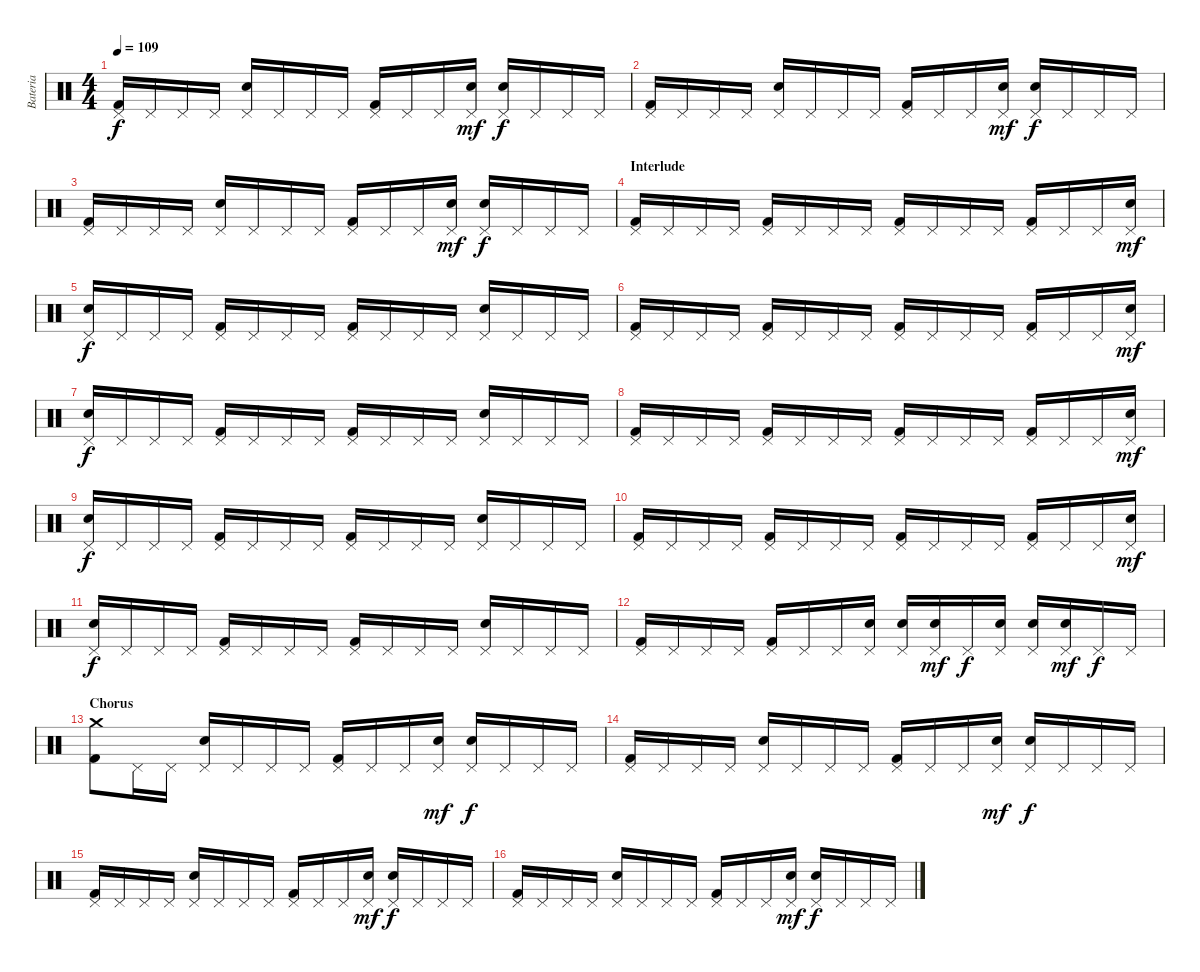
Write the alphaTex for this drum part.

\track ("Bateria" "Bateria") {instrument percussion}
\staff {score}
\articulation defaults
\ts (4 4)
\tempo 109
\clef neutral
\ks c
("Pedal Hi-Hat (hit)" "Kick (hit) 2").16{dy f} "Pedal Hi-Hat (hit)".16 "Pedal Hi-Hat (hit)".16 "Pedal Hi-Hat (hit)".16 ("Pedal Hi-Hat (hit)" "Electric Snare (hit)").16 "Pedal Hi-Hat (hit)".16 "Pedal Hi-Hat (hit)".16 "Pedal Hi-Hat (hit)".16 ("Pedal Hi-Hat (hit)" "Kick (hit) 2").16 "Pedal Hi-Hat (hit)".16 "Pedal Hi-Hat (hit)".16 ("Pedal Hi-Hat (hit)" "Electric Snare (hit)").16{dy mf} ("Pedal Hi-Hat (hit)" "Electric Snare (hit)").16{dy f} "Pedal Hi-Hat (hit)".16 "Pedal Hi-Hat (hit)".16 "Pedal Hi-Hat (hit)".16 |
("Pedal Hi-Hat (hit)" "Kick (hit) 2").16 "Pedal Hi-Hat (hit)".16 "Pedal Hi-Hat (hit)".16 "Pedal Hi-Hat (hit)".16 ("Pedal Hi-Hat (hit)" "Electric Snare (hit)").16 "Pedal Hi-Hat (hit)".16 "Pedal Hi-Hat (hit)".16 "Pedal Hi-Hat (hit)".16 ("Pedal Hi-Hat (hit)" "Kick (hit) 2").16 "Pedal Hi-Hat (hit)".16 "Pedal Hi-Hat (hit)".16 ("Pedal Hi-Hat (hit)" "Electric Snare (hit)").16{dy mf} ("Pedal Hi-Hat (hit)" "Electric Snare (hit)").16{dy f} "Pedal Hi-Hat (hit)".16 "Pedal Hi-Hat (hit)".16 "Pedal Hi-Hat (hit)".16 |
("Pedal Hi-Hat (hit)" "Kick (hit) 2").16 "Pedal Hi-Hat (hit)".16 "Pedal Hi-Hat (hit)".16 "Pedal Hi-Hat (hit)".16 ("Pedal Hi-Hat (hit)" "Electric Snare (hit)").16 "Pedal Hi-Hat (hit)".16 "Pedal Hi-Hat (hit)".16 "Pedal Hi-Hat (hit)".16 ("Pedal Hi-Hat (hit)" "Kick (hit) 2").16 "Pedal Hi-Hat (hit)".16 "Pedal Hi-Hat (hit)".16 ("Pedal Hi-Hat (hit)" "Electric Snare (hit)").16{dy mf} ("Pedal Hi-Hat (hit)" "Electric Snare (hit)").16{dy f} "Pedal Hi-Hat (hit)".16 "Pedal Hi-Hat (hit)".16 "Pedal Hi-Hat (hit)".16 |
\section ("" "Interlude")
("Pedal Hi-Hat (hit)" "Kick (hit) 2").16 "Pedal Hi-Hat (hit)".16 "Pedal Hi-Hat (hit)".16 "Pedal Hi-Hat (hit)".16 ("Pedal Hi-Hat (hit)" "Kick (hit) 2").16 "Pedal Hi-Hat (hit)".16 "Pedal Hi-Hat (hit)".16 "Pedal Hi-Hat (hit)".16 ("Pedal Hi-Hat (hit)" "Kick (hit) 2").16 "Pedal Hi-Hat (hit)".16 "Pedal Hi-Hat (hit)".16 "Pedal Hi-Hat (hit)".16 ("Pedal Hi-Hat (hit)" "Kick (hit) 2").16 "Pedal Hi-Hat (hit)".16 "Pedal Hi-Hat (hit)".16 ("Pedal Hi-Hat (hit)" "Electric Snare (hit)").16{dy mf} |
("Pedal Hi-Hat (hit)" "Electric Snare (hit)").16{dy f} "Pedal Hi-Hat (hit)".16 "Pedal Hi-Hat (hit)".16 "Pedal Hi-Hat (hit)".16 ("Pedal Hi-Hat (hit)" "Kick (hit) 2").16 "Pedal Hi-Hat (hit)".16 "Pedal Hi-Hat (hit)".16 "Pedal Hi-Hat (hit)".16 ("Pedal Hi-Hat (hit)" "Kick (hit) 2").16 "Pedal Hi-Hat (hit)".16 "Pedal Hi-Hat (hit)".16 "Pedal Hi-Hat (hit)".16 ("Pedal Hi-Hat (hit)" "Electric Snare (hit)").16 "Pedal Hi-Hat (hit)".16 "Pedal Hi-Hat (hit)".16 "Pedal Hi-Hat (hit)".16 |
("Pedal Hi-Hat (hit)" "Kick (hit) 2").16 "Pedal Hi-Hat (hit)".16 "Pedal Hi-Hat (hit)".16 "Pedal Hi-Hat (hit)".16 ("Pedal Hi-Hat (hit)" "Kick (hit) 2").16 "Pedal Hi-Hat (hit)".16 "Pedal Hi-Hat (hit)".16 "Pedal Hi-Hat (hit)".16 ("Pedal Hi-Hat (hit)" "Kick (hit) 2").16 "Pedal Hi-Hat (hit)".16 "Pedal Hi-Hat (hit)".16 "Pedal Hi-Hat (hit)".16 ("Pedal Hi-Hat (hit)" "Kick (hit) 2").16 "Pedal Hi-Hat (hit)".16 "Pedal Hi-Hat (hit)".16 ("Pedal Hi-Hat (hit)" "Electric Snare (hit)").16{dy mf} |
("Pedal Hi-Hat (hit)" "Electric Snare (hit)").16{dy f} "Pedal Hi-Hat (hit)".16 "Pedal Hi-Hat (hit)".16 "Pedal Hi-Hat (hit)".16 ("Pedal Hi-Hat (hit)" "Kick (hit) 2").16 "Pedal Hi-Hat (hit)".16 "Pedal Hi-Hat (hit)".16 "Pedal Hi-Hat (hit)".16 ("Pedal Hi-Hat (hit)" "Kick (hit) 2").16 "Pedal Hi-Hat (hit)".16 "Pedal Hi-Hat (hit)".16 "Pedal Hi-Hat (hit)".16 ("Pedal Hi-Hat (hit)" "Electric Snare (hit)").16 "Pedal Hi-Hat (hit)".16 "Pedal Hi-Hat (hit)".16 "Pedal Hi-Hat (hit)".16 |
("Pedal Hi-Hat (hit)" "Kick (hit) 2").16 "Pedal Hi-Hat (hit)".16 "Pedal Hi-Hat (hit)".16 "Pedal Hi-Hat (hit)".16 ("Pedal Hi-Hat (hit)" "Kick (hit) 2").16 "Pedal Hi-Hat (hit)".16 "Pedal Hi-Hat (hit)".16 "Pedal Hi-Hat (hit)".16 ("Pedal Hi-Hat (hit)" "Kick (hit) 2").16 "Pedal Hi-Hat (hit)".16 "Pedal Hi-Hat (hit)".16 "Pedal Hi-Hat (hit)".16 ("Pedal Hi-Hat (hit)" "Kick (hit) 2").16 "Pedal Hi-Hat (hit)".16 "Pedal Hi-Hat (hit)".16 ("Pedal Hi-Hat (hit)" "Electric Snare (hit)").16{dy mf} |
("Pedal Hi-Hat (hit)" "Electric Snare (hit)").16{dy f} "Pedal Hi-Hat (hit)".16 "Pedal Hi-Hat (hit)".16 "Pedal Hi-Hat (hit)".16 ("Pedal Hi-Hat (hit)" "Kick (hit) 2").16 "Pedal Hi-Hat (hit)".16 "Pedal Hi-Hat (hit)".16 "Pedal Hi-Hat (hit)".16 ("Pedal Hi-Hat (hit)" "Kick (hit) 2").16 "Pedal Hi-Hat (hit)".16 "Pedal Hi-Hat (hit)".16 "Pedal Hi-Hat (hit)".16 ("Pedal Hi-Hat (hit)" "Electric Snare (hit)").16 "Pedal Hi-Hat (hit)".16 "Pedal Hi-Hat (hit)".16 "Pedal Hi-Hat (hit)".16 |
("Pedal Hi-Hat (hit)" "Kick (hit) 2").16 "Pedal Hi-Hat (hit)".16 "Pedal Hi-Hat (hit)".16 "Pedal Hi-Hat (hit)".16 ("Pedal Hi-Hat (hit)" "Kick (hit) 2").16 "Pedal Hi-Hat (hit)".16 "Pedal Hi-Hat (hit)".16 "Pedal Hi-Hat (hit)".16 ("Pedal Hi-Hat (hit)" "Kick (hit) 2").16 "Pedal Hi-Hat (hit)".16 "Pedal Hi-Hat (hit)".16 "Pedal Hi-Hat (hit)".16 ("Pedal Hi-Hat (hit)" "Kick (hit) 2").16 "Pedal Hi-Hat (hit)".16 "Pedal Hi-Hat (hit)".16 ("Pedal Hi-Hat (hit)" "Electric Snare (hit)").16{dy mf} |
("Pedal Hi-Hat (hit)" "Electric Snare (hit)").16{dy f} "Pedal Hi-Hat (hit)".16 "Pedal Hi-Hat (hit)".16 "Pedal Hi-Hat (hit)".16 ("Pedal Hi-Hat (hit)" "Kick (hit) 2").16 "Pedal Hi-Hat (hit)".16 "Pedal Hi-Hat (hit)".16 "Pedal Hi-Hat (hit)".16 ("Pedal Hi-Hat (hit)" "Kick (hit) 2").16 "Pedal Hi-Hat (hit)".16 "Pedal Hi-Hat (hit)".16 "Pedal Hi-Hat (hit)".16 ("Pedal Hi-Hat (hit)" "Electric Snare (hit)").16 "Pedal Hi-Hat (hit)".16 "Pedal Hi-Hat (hit)".16 "Pedal Hi-Hat (hit)".16 |
("Pedal Hi-Hat (hit)" "Kick (hit) 2").16 "Pedal Hi-Hat (hit)".16 "Pedal Hi-Hat (hit)".16 "Pedal Hi-Hat (hit)".16 ("Pedal Hi-Hat (hit)" "Kick (hit) 2").16 "Pedal Hi-Hat (hit)".16 "Pedal Hi-Hat (hit)".16 ("Pedal Hi-Hat (hit)" "Electric Snare (hit)").16 ("Pedal Hi-Hat (hit)" "Electric Snare (hit)").16 ("Pedal Hi-Hat (hit)" "Electric Snare (hit)").16{dy mf} "Pedal Hi-Hat (hit)".16{dy f} ("Pedal Hi-Hat (hit)" "Electric Snare (hit)").16 ("Pedal Hi-Hat (hit)" "Electric Snare (hit)").16 ("Pedal Hi-Hat (hit)" "Electric Snare (hit)").16{dy mf} "Pedal Hi-Hat (hit)".16{dy f} "Pedal Hi-Hat (hit)".16 |
\section ("" "Chorus")
("Crash medium (hit)" "Kick (hit) 2").8 "Pedal Hi-Hat (hit)".16 "Pedal Hi-Hat (hit)".16 ("Pedal Hi-Hat (hit)" "Electric Snare (hit)").16 "Pedal Hi-Hat (hit)".16 "Pedal Hi-Hat (hit)".16 "Pedal Hi-Hat (hit)".16 ("Pedal Hi-Hat (hit)" "Kick (hit) 2").16 "Pedal Hi-Hat (hit)".16 "Pedal Hi-Hat (hit)".16 ("Pedal Hi-Hat (hit)" "Electric Snare (hit)").16{dy mf} ("Pedal Hi-Hat (hit)" "Electric Snare (hit)").16{dy f} "Pedal Hi-Hat (hit)".16 "Pedal Hi-Hat (hit)".16 "Pedal Hi-Hat (hit)".16 |
("Pedal Hi-Hat (hit)" "Kick (hit) 2").16 "Pedal Hi-Hat (hit)".16 "Pedal Hi-Hat (hit)".16 "Pedal Hi-Hat (hit)".16 ("Pedal Hi-Hat (hit)" "Electric Snare (hit)").16 "Pedal Hi-Hat (hit)".16 "Pedal Hi-Hat (hit)".16 "Pedal Hi-Hat (hit)".16 ("Pedal Hi-Hat (hit)" "Kick (hit) 2").16 "Pedal Hi-Hat (hit)".16 "Pedal Hi-Hat (hit)".16 ("Pedal Hi-Hat (hit)" "Electric Snare (hit)").16{dy mf} ("Pedal Hi-Hat (hit)" "Electric Snare (hit)").16{dy f} "Pedal Hi-Hat (hit)".16 "Pedal Hi-Hat (hit)".16 "Pedal Hi-Hat (hit)".16 |
("Pedal Hi-Hat (hit)" "Kick (hit) 2").16 "Pedal Hi-Hat (hit)".16 "Pedal Hi-Hat (hit)".16 "Pedal Hi-Hat (hit)".16 ("Pedal Hi-Hat (hit)" "Electric Snare (hit)").16 "Pedal Hi-Hat (hit)".16 "Pedal Hi-Hat (hit)".16 "Pedal Hi-Hat (hit)".16 ("Pedal Hi-Hat (hit)" "Kick (hit) 2").16 "Pedal Hi-Hat (hit)".16 "Pedal Hi-Hat (hit)".16 ("Pedal Hi-Hat (hit)" "Electric Snare (hit)").16{dy mf} ("Pedal Hi-Hat (hit)" "Electric Snare (hit)").16{dy f} "Pedal Hi-Hat (hit)".16 "Pedal Hi-Hat (hit)".16 "Pedal Hi-Hat (hit)".16 |
("Pedal Hi-Hat (hit)" "Kick (hit) 2").16 "Pedal Hi-Hat (hit)".16 "Pedal Hi-Hat (hit)".16 "Pedal Hi-Hat (hit)".16 ("Pedal Hi-Hat (hit)" "Electric Snare (hit)").16 "Pedal Hi-Hat (hit)".16 "Pedal Hi-Hat (hit)".16 "Pedal Hi-Hat (hit)".16 ("Pedal Hi-Hat (hit)" "Kick (hit) 2").16 "Pedal Hi-Hat (hit)".16 "Pedal Hi-Hat (hit)".16 ("Pedal Hi-Hat (hit)" "Electric Snare (hit)").16{dy mf} ("Pedal Hi-Hat (hit)" "Electric Snare (hit)").16{dy f} "Pedal Hi-Hat (hit)".16 "Pedal Hi-Hat (hit)".16 "Pedal Hi-Hat (hit)".16
